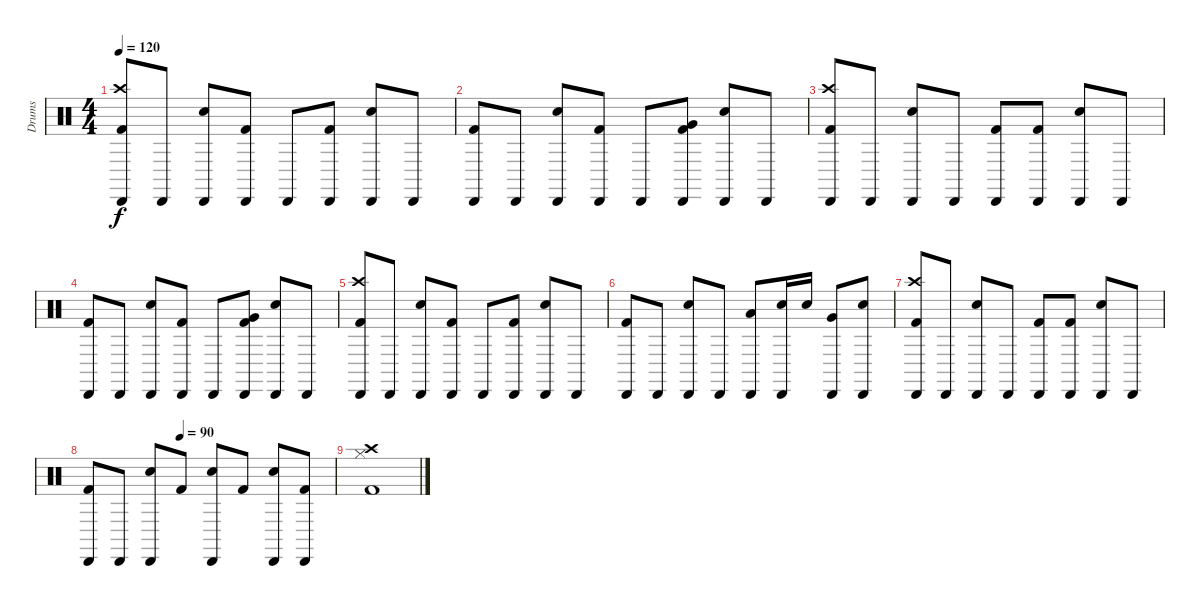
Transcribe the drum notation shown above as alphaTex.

\track ("Drums" "Drums") {instrument percussion}
\staff {score}
\articulation defaults
\ts (4 4)
\tempo 120
\clef neutral
\ks c
("Cabasa (hit)" "Crash high (hit)" "Kick (hit) 2").8{dy f} "Cabasa (hit)".8 ("Cabasa (hit)" "Electric Snare (hit)").8 ("Cabasa (hit)" "Kick (hit) 2").8 "Cabasa (hit)".8 ("Cabasa (hit)" "Kick (hit) 2").8 ("Cabasa (hit)" "Electric Snare (hit)").8 "Cabasa (hit)".8 |
("Cabasa (hit)" "Kick (hit) 2").8 "Cabasa (hit)".8 ("Cabasa (hit)" "Electric Snare (hit)").8 ("Cabasa (hit)" "Kick (hit) 2").8 "Cabasa (hit)".8 ("Cabasa (hit)" "Very Low Tom (hit)" "Kick (hit) 2").8 ("Cabasa (hit)" "Electric Snare (hit)").8 "Cabasa (hit)".8 |
("Cabasa (hit)" "Crash high (hit)" "Kick (hit) 2").8 "Cabasa (hit)".8 ("Cabasa (hit)" "Electric Snare (hit)").8 "Cabasa (hit)".8 ("Cabasa (hit)" "Kick (hit) 2").8 ("Cabasa (hit)" "Kick (hit) 2").8 ("Cabasa (hit)" "Electric Snare (hit)").8 "Cabasa (hit)".8 |
("Cabasa (hit)" "Kick (hit) 2").8 "Cabasa (hit)".8 ("Cabasa (hit)" "Electric Snare (hit)").8 ("Cabasa (hit)" "Kick (hit) 2").8 "Cabasa (hit)".8 ("Cabasa (hit)" "Very Low Tom (hit)" "Kick (hit) 2").8 ("Cabasa (hit)" "Electric Snare (hit)").8 "Cabasa (hit)".8 |
("Cabasa (hit)" "Crash high (hit)" "Kick (hit) 2").8 "Cabasa (hit)".8 ("Cabasa (hit)" "Electric Snare (hit)").8 ("Cabasa (hit)" "Kick (hit) 2").8 "Cabasa (hit)".8 ("Cabasa (hit)" "Kick (hit) 2").8 ("Cabasa (hit)" "Electric Snare (hit)").8 "Cabasa (hit)".8 |
("Cabasa (hit)" "Kick (hit) 2").8 "Cabasa (hit)".8 ("Cabasa (hit)" "Electric Snare (hit)").8 "Cabasa (hit)".8 ("Cabasa (hit)" "Low Tom (hit)").8 ("Cabasa (hit)" "Electric Snare (hit)").16 "Electric Snare (hit)".16 ("Cabasa (hit)" "Very Low Tom (hit)").8 ("Cabasa (hit)" "Electric Snare (hit)").8 |
("Cabasa (hit)" "Crash high (hit)" "Kick (hit) 2").8 "Cabasa (hit)".8 ("Cabasa (hit)" "Electric Snare (hit)").8 "Cabasa (hit)".8 ("Cabasa (hit)" "Kick (hit) 2").8 ("Cabasa (hit)" "Kick (hit) 2").8 ("Cabasa (hit)" "Electric Snare (hit)").8 "Cabasa (hit)".8 |
\tempo (90 0.375)
("Cabasa (hit)" "Kick (hit) 2").8 "Cabasa (hit)".8 ("Cabasa (hit)" "Electric Snare (hit)").8 "Kick (hit) 2".8 ("Cabasa (hit)" "Electric Snare (hit)").8 "Kick (hit) 2".8 ("Cabasa (hit)" "Electric Snare (hit)").8 ("Cabasa (hit)" "Kick (hit) 2").8 |
("Hi-Hat (closed)" "Crash high (hit)" "Kick (hit) 2").1
